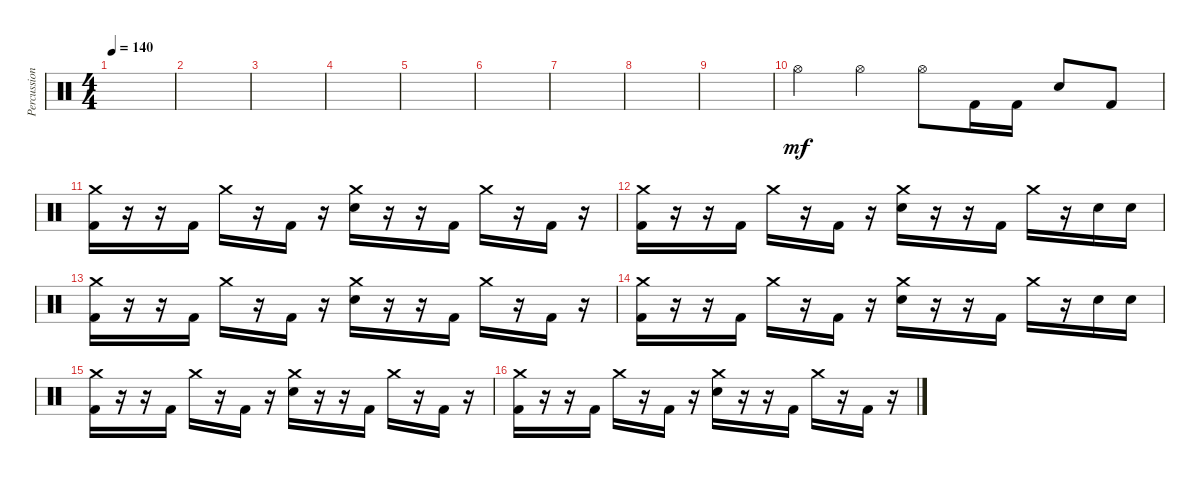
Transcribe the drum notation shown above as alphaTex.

\track ("Percussions" "Percussion") {instrument percussion}
\staff {score}
\articulation defaults
\ts (4 4)
\tempo 140
\clef neutral
\ks c
|
|
|
|
|
|
|
|
|
"Hi-Hat (open)".4{dy mf} "Hi-Hat (open)".4 "Hi-Hat (open)".8 "Kick (hit) 2".16 "Kick (hit) 2".16 "Electric Snare (hit)".8 "Kick (hit) 2".8 |
("Kick (hit) 2" "Crash medium (hit)").16 r.16 r.16 "Kick (hit) 2".16 "Crash medium (hit)".16 r.16 "Kick (hit) 2".16 r.16 ("Electric Snare (hit)" "Crash medium (hit)").16 r.16 r.16 "Kick (hit) 2".16 "Crash medium (hit)".16 r.16 "Kick (hit) 2".16 r.16 |
("Kick (hit) 2" "Crash medium (hit)").16 r.16 r.16 "Kick (hit) 2".16 "Crash medium (hit)".16 r.16 "Kick (hit) 2".16 r.16 ("Electric Snare (hit)" "Crash medium (hit)").16 r.16 r.16 "Kick (hit) 2".16 "Crash medium (hit)".16 r.16 "Electric Snare (hit)".16 "Electric Snare (hit)".16 |
("Kick (hit) 2" "Crash medium (hit)").16 r.16 r.16 "Kick (hit) 2".16 "Crash medium (hit)".16 r.16 "Kick (hit) 2".16 r.16 ("Electric Snare (hit)" "Crash medium (hit)").16 r.16 r.16 "Kick (hit) 2".16 "Crash medium (hit)".16 r.16 "Kick (hit) 2".16 r.16 |
("Kick (hit) 2" "Crash medium (hit)").16 r.16 r.16 "Kick (hit) 2".16 "Crash medium (hit)".16 r.16 "Kick (hit) 2".16 r.16 ("Electric Snare (hit)" "Crash medium (hit)").16 r.16 r.16 "Kick (hit) 2".16 "Crash medium (hit)".16 r.16 "Electric Snare (hit)".16 "Electric Snare (hit)".16 |
("Kick (hit) 2" "Crash medium (hit)").16 r.16 r.16 "Kick (hit) 2".16 "Crash medium (hit)".16 r.16 "Kick (hit) 2".16 r.16 ("Electric Snare (hit)" "Crash medium (hit)").16 r.16 r.16 "Kick (hit) 2".16 "Crash medium (hit)".16 r.16 "Kick (hit) 2".16 r.16 |
("Kick (hit) 2" "Crash medium (hit)").16 r.16 r.16 "Kick (hit) 2".16 "Crash medium (hit)".16 r.16 "Kick (hit) 2".16 r.16 ("Electric Snare (hit)" "Crash medium (hit)").16 r.16 r.16 "Kick (hit) 2".16 "Crash medium (hit)".16 r.16 "Kick (hit) 2".16 r.16
